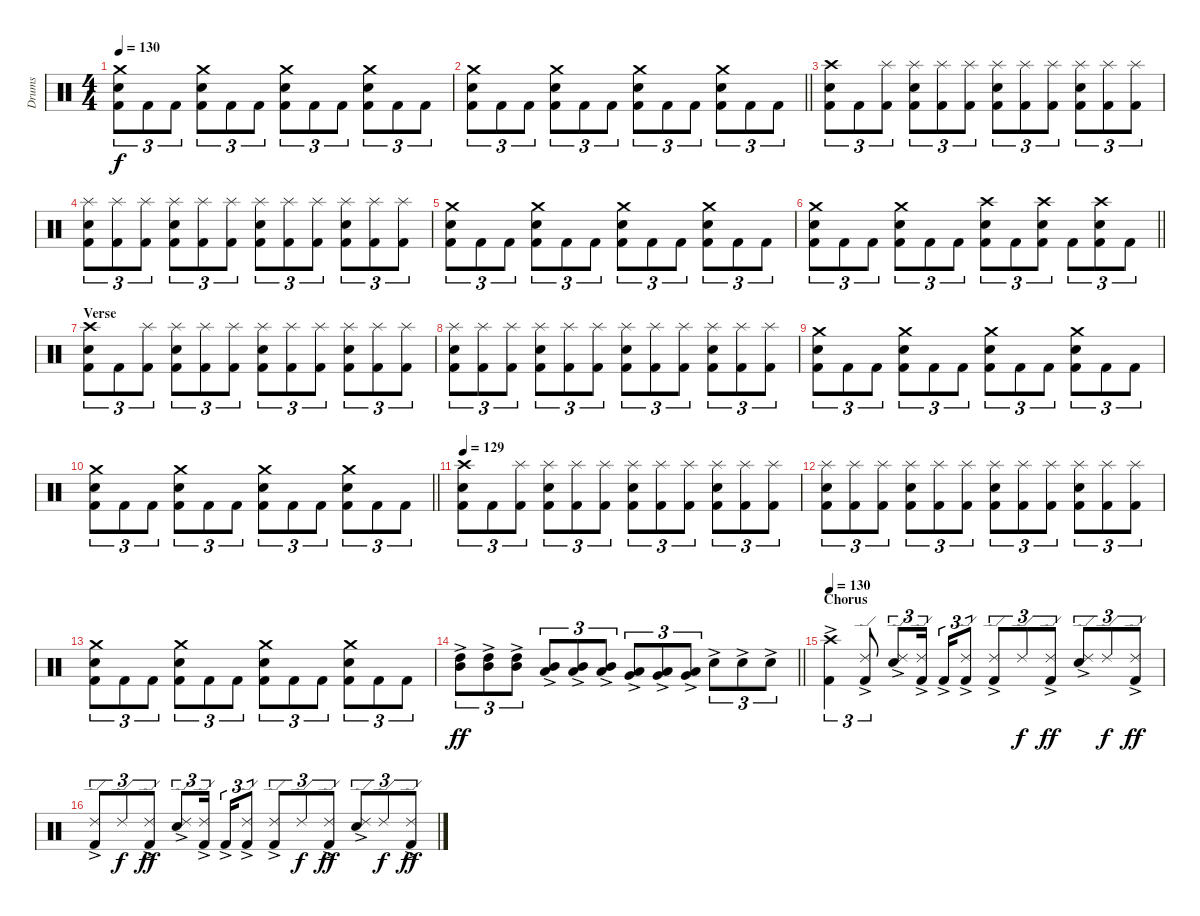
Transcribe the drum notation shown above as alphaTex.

\track ("Drums" "Drums") {instrument percussion}
\staff {score}
\articulation defaults
\ts (4 4)
\tempo 130
\clef neutral
\ks c
("Kick (hit) 2" "Snare (hit) 2" "Crash medium (hit)").8{tu (3 2) dy f} "Kick (hit) 2".8{tu (3 2)} "Kick (hit) 2".8{tu (3 2)} ("Kick (hit) 2" "Snare (hit) 2" "Crash medium (hit)").8{tu (3 2)} "Kick (hit) 2".8{tu (3 2)} "Kick (hit) 2".8{tu (3 2)} ("Kick (hit) 2" "Snare (hit) 2" "Crash medium (hit)").8{tu (3 2)} "Kick (hit) 2".8{tu (3 2)} "Kick (hit) 2".8{tu (3 2)} ("Kick (hit) 2" "Snare (hit) 2" "Crash medium (hit)").8{tu (3 2)} "Kick (hit) 2".8{tu (3 2)} "Kick (hit) 2".8{tu (3 2)} |
\barLineRight lightlight
("Kick (hit) 2" "Snare (hit) 2" "Crash medium (hit)").8{tu (3 2)} "Kick (hit) 2".8{tu (3 2)} "Kick (hit) 2".8{tu (3 2)} ("Kick (hit) 2" "Snare (hit) 2" "Crash medium (hit)").8{tu (3 2)} "Kick (hit) 2".8{tu (3 2)} "Kick (hit) 2".8{tu (3 2)} ("Kick (hit) 2" "Snare (hit) 2" "Crash medium (hit)").8{tu (3 2)} "Kick (hit) 2".8{tu (3 2)} "Kick (hit) 2".8{tu (3 2)} ("Kick (hit) 2" "Snare (hit) 2" "Crash medium (hit)").8{tu (3 2)} "Kick (hit) 2".8{tu (3 2)} "Kick (hit) 2".8{tu (3 2)} |
\section ("" "")
("Kick (hit) 2" "Snare (hit) 2" "Crash high (hit)").8{tu (3 2)} "Kick (hit) 2".8{tu (3 2)} ("Kick (hit) 2" "Splash (hit)").8{tu (3 2)} ("Kick (hit) 2" "Snare (hit) 2" "Splash (hit)").8{tu (3 2)} ("Kick (hit) 2" "Splash (hit)").8{tu (3 2)} ("Kick (hit) 2" "Splash (hit)").8{tu (3 2)} ("Kick (hit) 2" "Snare (hit) 2" "Splash (hit)").8{tu (3 2)} ("Kick (hit) 2" "Splash (hit)").8{tu (3 2)} ("Kick (hit) 2" "Splash (hit)").8{tu (3 2)} ("Kick (hit) 2" "Snare (hit) 2" "Splash (hit)").8{tu (3 2)} ("Kick (hit) 2" "Splash (hit)").8{tu (3 2)} ("Kick (hit) 2" "Splash (hit)").8{tu (3 2)} |
("Kick (hit) 2" "Snare (hit) 2" "Splash (hit)").8{tu (3 2)} ("Kick (hit) 2" "Splash (hit)").8{tu (3 2)} ("Kick (hit) 2" "Splash (hit)").8{tu (3 2)} ("Kick (hit) 2" "Snare (hit) 2" "Splash (hit)").8{tu (3 2)} ("Kick (hit) 2" "Splash (hit)").8{tu (3 2)} ("Kick (hit) 2" "Splash (hit)").8{tu (3 2)} ("Kick (hit) 2" "Snare (hit) 2" "Splash (hit)").8{tu (3 2)} ("Kick (hit) 2" "Splash (hit)").8{tu (3 2)} ("Kick (hit) 2" "Splash (hit)").8{tu (3 2)} ("Kick (hit) 2" "Snare (hit) 2" "Splash (hit)").8{tu (3 2)} ("Kick (hit) 2" "Splash (hit)").8{tu (3 2)} ("Kick (hit) 2" "Splash (hit)").8{tu (3 2)} |
("Kick (hit) 2" "Snare (hit) 2" "Crash medium (hit)").8{tu (3 2)} "Kick (hit) 2".8{tu (3 2)} "Kick (hit) 2".8{tu (3 2)} ("Kick (hit) 2" "Snare (hit) 2" "Crash medium (hit)").8{tu (3 2)} "Kick (hit) 2".8{tu (3 2)} "Kick (hit) 2".8{tu (3 2)} ("Kick (hit) 2" "Snare (hit) 2" "Crash medium (hit)").8{tu (3 2)} "Kick (hit) 2".8{tu (3 2)} "Kick (hit) 2".8{tu (3 2)} ("Kick (hit) 2" "Snare (hit) 2" "Crash medium (hit)").8{tu (3 2)} "Kick (hit) 2".8{tu (3 2)} "Kick (hit) 2".8{tu (3 2)} |
\barLineRight lightlight
("Kick (hit) 2" "Snare (hit) 2" "Crash medium (hit)").8{tu (3 2)} "Kick (hit) 2".8{tu (3 2)} "Kick (hit) 2".8{tu (3 2)} ("Kick (hit) 2" "Snare (hit) 2" "Crash medium (hit)").8{tu (3 2)} "Kick (hit) 2".8{tu (3 2)} "Kick (hit) 2".8{tu (3 2)} ("Kick (hit) 2" "Snare (hit) 2" "Crash high (hit)").8{tu (3 2)} "Kick (hit) 2".8{tu (3 2)} ("Kick (hit) 2" "Snare (hit) 2" "Crash high (hit)").8{tu (3 2)} "Kick (hit) 2".8{tu (3 2)} ("Kick (hit) 2" "Snare (hit) 2" "Crash high (hit)").8{tu (3 2)} "Kick (hit) 2".8{tu (3 2)} |
\section ("" "Verse")
("Kick (hit) 2" "Snare (hit) 2" "Crash high (hit)").8{tu (3 2)} "Kick (hit) 2".8{tu (3 2)} ("Kick (hit) 2" "Splash (hit)").8{tu (3 2)} ("Kick (hit) 2" "Snare (hit) 2" "Splash (hit)").8{tu (3 2)} ("Kick (hit) 2" "Splash (hit)").8{tu (3 2)} ("Kick (hit) 2" "Splash (hit)").8{tu (3 2)} ("Kick (hit) 2" "Snare (hit) 2" "Splash (hit)").8{tu (3 2)} ("Kick (hit) 2" "Splash (hit)").8{tu (3 2)} ("Kick (hit) 2" "Splash (hit)").8{tu (3 2)} ("Kick (hit) 2" "Snare (hit) 2" "Splash (hit)").8{tu (3 2)} ("Kick (hit) 2" "Splash (hit)").8{tu (3 2)} ("Kick (hit) 2" "Splash (hit)").8{tu (3 2)} |
("Kick (hit) 2" "Snare (hit) 2" "Splash (hit)").8{tu (3 2)} ("Kick (hit) 2" "Splash (hit)").8{tu (3 2)} ("Kick (hit) 2" "Splash (hit)").8{tu (3 2)} ("Kick (hit) 2" "Snare (hit) 2" "Splash (hit)").8{tu (3 2)} ("Kick (hit) 2" "Splash (hit)").8{tu (3 2)} ("Kick (hit) 2" "Splash (hit)").8{tu (3 2)} ("Kick (hit) 2" "Snare (hit) 2" "Splash (hit)").8{tu (3 2)} ("Kick (hit) 2" "Splash (hit)").8{tu (3 2)} ("Kick (hit) 2" "Splash (hit)").8{tu (3 2)} ("Kick (hit) 2" "Snare (hit) 2" "Splash (hit)").8{tu (3 2)} ("Kick (hit) 2" "Splash (hit)").8{tu (3 2)} ("Kick (hit) 2" "Splash (hit)").8{tu (3 2)} |
("Kick (hit) 2" "Snare (hit) 2" "Crash medium (hit)").8{tu (3 2)} "Kick (hit) 2".8{tu (3 2)} "Kick (hit) 2".8{tu (3 2)} ("Kick (hit) 2" "Snare (hit) 2" "Crash medium (hit)").8{tu (3 2)} "Kick (hit) 2".8{tu (3 2)} "Kick (hit) 2".8{tu (3 2)} ("Kick (hit) 2" "Snare (hit) 2" "Crash medium (hit)").8{tu (3 2)} "Kick (hit) 2".8{tu (3 2)} "Kick (hit) 2".8{tu (3 2)} ("Kick (hit) 2" "Snare (hit) 2" "Crash medium (hit)").8{tu (3 2)} "Kick (hit) 2".8{tu (3 2)} "Kick (hit) 2".8{tu (3 2)} |
\barLineRight lightlight
("Kick (hit) 2" "Snare (hit) 2" "Crash medium (hit)").8{tu (3 2)} "Kick (hit) 2".8{tu (3 2)} "Kick (hit) 2".8{tu (3 2)} ("Kick (hit) 2" "Snare (hit) 2" "Crash medium (hit)").8{tu (3 2)} "Kick (hit) 2".8{tu (3 2)} "Kick (hit) 2".8{tu (3 2)} ("Kick (hit) 2" "Snare (hit) 2" "Crash medium (hit)").8{tu (3 2)} "Kick (hit) 2".8{tu (3 2)} "Kick (hit) 2".8{tu (3 2)} ("Kick (hit) 2" "Snare (hit) 2" "Crash medium (hit)").8{tu (3 2)} "Kick (hit) 2".8{tu (3 2)} "Kick (hit) 2".8{tu (3 2)} |
\section ("" "")
\tempo 129
("Kick (hit) 2" "Snare (hit) 2" "Crash high (hit)").8{tu (3 2)} "Kick (hit) 2".8{tu (3 2)} ("Kick (hit) 2" "Splash (hit)").8{tu (3 2)} ("Kick (hit) 2" "Snare (hit) 2" "Splash (hit)").8{tu (3 2)} ("Kick (hit) 2" "Splash (hit)").8{tu (3 2)} ("Kick (hit) 2" "Splash (hit)").8{tu (3 2)} ("Kick (hit) 2" "Snare (hit) 2" "Splash (hit)").8{tu (3 2)} ("Kick (hit) 2" "Splash (hit)").8{tu (3 2)} ("Kick (hit) 2" "Splash (hit)").8{tu (3 2)} ("Kick (hit) 2" "Snare (hit) 2" "Splash (hit)").8{tu (3 2)} ("Kick (hit) 2" "Splash (hit)").8{tu (3 2)} ("Kick (hit) 2" "Splash (hit)").8{tu (3 2)} |
("Kick (hit) 2" "Snare (hit) 2" "Splash (hit)").8{tu (3 2)} ("Kick (hit) 2" "Splash (hit)").8{tu (3 2)} ("Kick (hit) 2" "Splash (hit)").8{tu (3 2)} ("Kick (hit) 2" "Snare (hit) 2" "Splash (hit)").8{tu (3 2)} ("Kick (hit) 2" "Splash (hit)").8{tu (3 2)} ("Kick (hit) 2" "Splash (hit)").8{tu (3 2)} ("Kick (hit) 2" "Snare (hit) 2" "Splash (hit)").8{tu (3 2)} ("Kick (hit) 2" "Splash (hit)").8{tu (3 2)} ("Kick (hit) 2" "Splash (hit)").8{tu (3 2)} ("Kick (hit) 2" "Snare (hit) 2" "Splash (hit)").8{tu (3 2)} ("Kick (hit) 2" "Splash (hit)").8{tu (3 2)} ("Kick (hit) 2" "Splash (hit)").8{tu (3 2)} |
("Kick (hit) 2" "Snare (hit) 2" "Crash medium (hit)").8{tu (3 2)} "Kick (hit) 2".8{tu (3 2)} "Kick (hit) 2".8{tu (3 2)} ("Kick (hit) 2" "Snare (hit) 2" "Crash medium (hit)").8{tu (3 2)} "Kick (hit) 2".8{tu (3 2)} "Kick (hit) 2".8{tu (3 2)} ("Kick (hit) 2" "Snare (hit) 2" "Crash medium (hit)").8{tu (3 2)} "Kick (hit) 2".8{tu (3 2)} "Kick (hit) 2".8{tu (3 2)} ("Kick (hit) 2" "Snare (hit) 2" "Crash medium (hit)").8{tu (3 2)} "Kick (hit) 2".8{tu (3 2)} "Kick (hit) 2".8{tu (3 2)} |
\barLineRight lightlight
("Mid Tom (hit)"{ac} "High Tom (hit)").8{tu (3 2) dy ff} ("Mid Tom (hit)"{ac} "High Tom (hit)").8{tu (3 2)} ("Mid Tom (hit)"{ac} "High Tom (hit)").8{tu (3 2)} ("Low Tom (hit)"{ac} "Mid Tom (hit)").8{tu (3 2)} ("Low Tom (hit)"{ac} "Mid Tom (hit)").8{tu (3 2)} ("Low Tom (hit)"{ac} "Mid Tom (hit)").8{tu (3 2)} ("Very Low Tom (hit)"{ac} "Low Tom (hit)").8{tu (3 2)} ("Very Low Tom (hit)"{ac} "Low Tom (hit)").8{tu (3 2)} ("Very Low Tom (hit)"{ac} "Low Tom (hit)").8{tu (3 2)} "Snare (hit) 2"{ac}.8{tu (3 2)} "Snare (hit) 2"{ac}.8{tu (3 2)} "Snare (hit) 2"{ac}.8{tu (3 2)} |
\section ("" "Chorus")
\tempo 130
("Kick (hit) 2"{ac} "Crash high (hit)").4{tu (3 2)} ("Kick (hit) 2"{ac} "Ride (edge) 2").8{tu (3 2)} ("Snare (hit) 2"{ac} "Ride (edge) 2").8{tu (3 2)} ("Kick (hit) 2"{ac} "Ride (edge) 2").16{tu (3 2) beam splitsecondary} "Kick (hit) 2"{ac}.16{tu (3 2)} ("Kick (hit) 2"{ac} "Ride (edge) 2").8{tu (3 2)} ("Kick (hit) 2"{ac} "Ride (edge) 2").8{tu (3 2)} "Ride (edge) 2".8{tu (3 2) dy f} ("Kick (hit) 2"{ac} "Ride (edge) 2").8{tu (3 2) dy ff} ("Snare (hit) 2"{ac} "Ride (edge) 2").8{tu (3 2)} "Ride (edge) 2".8{tu (3 2) dy f} ("Kick (hit) 2"{ac} "Ride (edge) 2").8{tu (3 2) dy ff} |
("Kick (hit) 2"{ac} "Ride (edge) 2").8{tu (3 2)} "Ride (edge) 2".8{tu (3 2) dy f} ("Kick (hit) 2"{ac} "Ride (edge) 2").8{tu (3 2) dy ff} ("Snare (hit) 2"{ac} "Ride (edge) 2").8{tu (3 2)} ("Kick (hit) 2"{ac} "Ride (edge) 2").16{tu (3 2) beam splitsecondary} "Kick (hit) 2"{ac}.16{tu (3 2)} ("Kick (hit) 2"{ac} "Ride (edge) 2").8{tu (3 2)} ("Kick (hit) 2"{ac} "Ride (edge) 2").8{tu (3 2)} "Ride (edge) 2".8{tu (3 2) dy f} ("Kick (hit) 2"{ac} "Ride (edge) 2").8{tu (3 2) dy ff} ("Snare (hit) 2"{ac} "Ride (edge) 2").8{tu (3 2)} "Ride (edge) 2".8{tu (3 2) dy f} ("Kick (hit) 2"{ac} "Ride (edge) 2").8{tu (3 2) dy ff}
